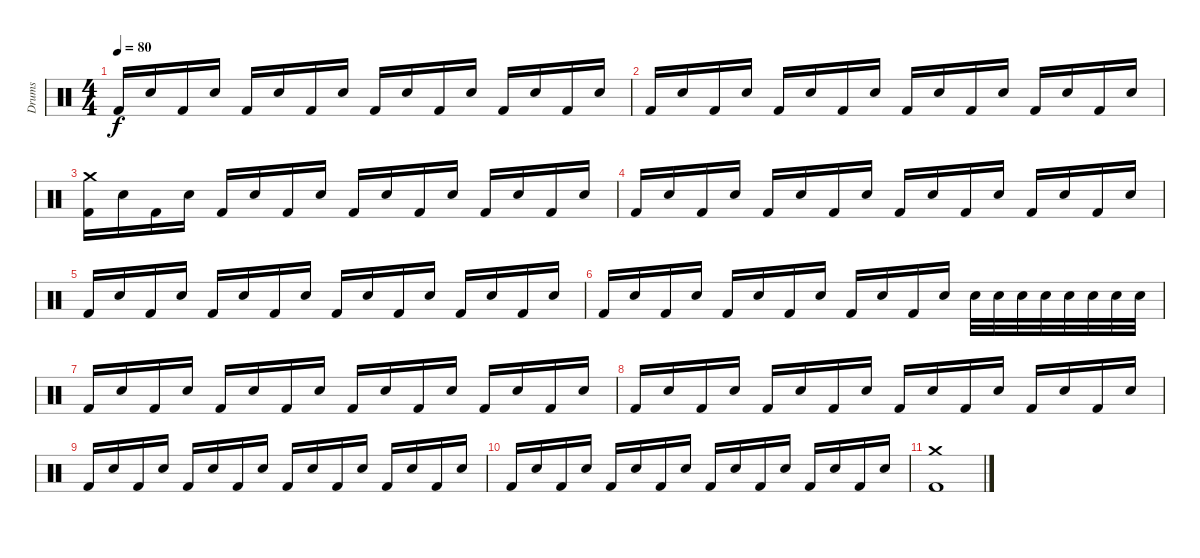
\track ("Drums" "Drums") {instrument percussion}
\staff {score}
\articulation defaults
\ts (4 4)
\tempo 80
\clef neutral
\ks c "Kick (hit) 2".16{dy f} "Snare (hit) 2".16 "Kick (hit) 2".16 "Snare (hit) 2".16 "Kick (hit) 2".16 "Snare (hit) 2".16 "Kick (hit) 2".16 "Snare (hit) 2".16 "Kick (hit) 2".16 "Snare (hit) 2".16 "Kick (hit) 2".16 "Snare (hit) 2".16 "Kick (hit) 2".16 "Snare (hit) 2".16 "Kick (hit) 2".16 "Snare (hit) 2".16
|
"Kick (hit) 2".16 "Snare (hit) 2".16 "Kick (hit) 2".16 "Snare (hit) 2".16 "Kick (hit) 2".16 "Snare (hit) 2".16 "Kick (hit) 2".16 "Snare (hit) 2".16 "Kick (hit) 2".16 "Snare (hit) 2".16 "Kick (hit) 2".16 "Snare (hit) 2".16 "Kick (hit) 2".16 "Snare (hit) 2".16 "Kick (hit) 2".16 "Snare (hit) 2".16 |
("Crash medium (hit)" "Kick (hit) 2").16 "Snare (hit) 2".16 "Kick (hit) 2".16 "Snare (hit) 2".16 "Kick (hit) 2".16 "Snare (hit) 2".16 "Kick (hit) 2".16 "Snare (hit) 2".16 "Kick (hit) 2".16 "Snare (hit) 2".16 "Kick (hit) 2".16 "Snare (hit) 2".16 "Kick (hit) 2".16 "Snare (hit) 2".16 "Kick (hit) 2".16 "Snare (hit) 2".16 |
"Kick (hit) 2".16 "Snare (hit) 2".16 "Kick (hit) 2".16 "Snare (hit) 2".16 "Kick (hit) 2".16 "Snare (hit) 2".16 "Kick (hit) 2".16 "Snare (hit) 2".16 "Kick (hit) 2".16 "Snare (hit) 2".16 "Kick (hit) 2".16 "Snare (hit) 2".16 "Kick (hit) 2".16 "Snare (hit) 2".16 "Kick (hit) 2".16 "Snare (hit) 2".16 |
"Kick (hit) 2".16 "Snare (hit) 2".16 "Kick (hit) 2".16 "Snare (hit) 2".16 "Kick (hit) 2".16 "Snare (hit) 2".16 "Kick (hit) 2".16 "Snare (hit) 2".16 "Kick (hit) 2".16 "Snare (hit) 2".16 "Kick (hit) 2".16 "Snare (hit) 2".16 "Kick (hit) 2".16 "Snare (hit) 2".16 "Kick (hit) 2".16 "Snare (hit) 2".16 |
"Kick (hit) 2".16 "Snare (hit) 2".16 "Kick (hit) 2".16 "Snare (hit) 2".16 "Kick (hit) 2".16 "Snare (hit) 2".16 "Kick (hit) 2".16 "Snare (hit) 2".16 "Kick (hit) 2".16 "Snare (hit) 2".16 "Kick (hit) 2".16 "Snare (hit) 2".16 "Snare (hit) 2".32 "Snare (hit) 2".32 "Snare (hit) 2".32 "Snare (hit) 2".32 "Snare (hit) 2".32 "Snare (hit) 2".32 "Snare (hit) 2".32 "Snare (hit) 2".32 |
"Kick (hit) 2".16 "Snare (hit) 2".16 "Kick (hit) 2".16 "Snare (hit) 2".16 "Kick (hit) 2".16 "Snare (hit) 2".16 "Kick (hit) 2".16 "Snare (hit) 2".16 "Kick (hit) 2".16 "Snare (hit) 2".16 "Kick (hit) 2".16 "Snare (hit) 2".16 "Kick (hit) 2".16 "Snare (hit) 2".16 "Kick (hit) 2".16 "Snare (hit) 2".16 |
"Kick (hit) 2".16 "Snare (hit) 2".16 "Kick (hit) 2".16 "Snare (hit) 2".16 "Kick (hit) 2".16 "Snare (hit) 2".16 "Kick (hit) 2".16 "Snare (hit) 2".16 "Kick (hit) 2".16 "Snare (hit) 2".16 "Kick (hit) 2".16 "Snare (hit) 2".16 "Kick (hit) 2".16 "Snare (hit) 2".16 "Kick (hit) 2".16 "Snare (hit) 2".16 |
"Kick (hit) 2".16 "Snare (hit) 2".16 "Kick (hit) 2".16 "Snare (hit) 2".16 "Kick (hit) 2".16 "Snare (hit) 2".16 "Kick (hit) 2".16 "Snare (hit) 2".16 "Kick (hit) 2".16 "Snare (hit) 2".16 "Kick (hit) 2".16 "Snare (hit) 2".16 "Kick (hit) 2".16 "Snare (hit) 2".16 "Kick (hit) 2".16 "Snare (hit) 2".16 |
"Kick (hit) 2".16 "Snare (hit) 2".16 "Kick (hit) 2".16 "Snare (hit) 2".16 "Kick (hit) 2".16 "Snare (hit) 2".16 "Kick (hit) 2".16 "Snare (hit) 2".16 "Kick (hit) 2".16 "Snare (hit) 2".16 "Kick (hit) 2".16 "Snare (hit) 2".16 "Kick (hit) 2".16 "Snare (hit) 2".16 "Kick (hit) 2".16 "Snare (hit) 2".16 |
("Crash medium (hit)" "Kick (hit) 2").1
